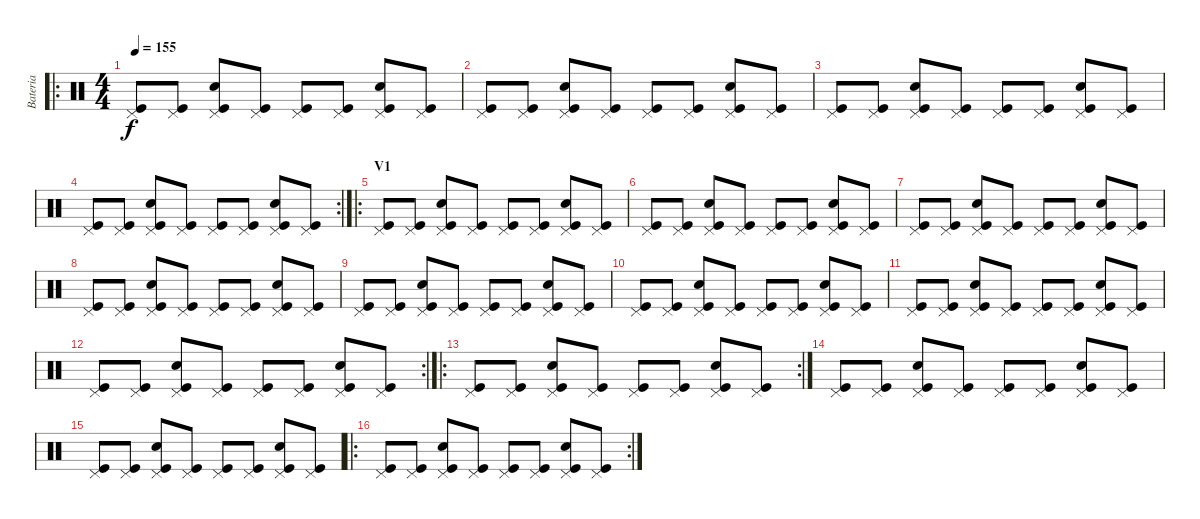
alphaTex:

\track ("Bateria" "Bateria") {instrument percussion}
\staff {score}
\articulation defaults
\ro
\ts (4 4)
\tempo 155
\clef neutral
\ks c
("Pedal Hi-Hat (hit)" "Kick (hit)").8{dy f} ("Pedal Hi-Hat (hit)" "Kick (hit)").8 ("Pedal Hi-Hat (hit)" "Electric Snare (hit)" "Kick (hit)").8 ("Pedal Hi-Hat (hit)" "Kick (hit)").8 ("Pedal Hi-Hat (hit)" "Kick (hit)").8 ("Pedal Hi-Hat (hit)" "Kick (hit)").8 ("Pedal Hi-Hat (hit)" "Electric Snare (hit)" "Kick (hit)").8 ("Pedal Hi-Hat (hit)" "Kick (hit)").8 |
("Pedal Hi-Hat (hit)" "Kick (hit)").8 ("Pedal Hi-Hat (hit)" "Kick (hit)").8 ("Pedal Hi-Hat (hit)" "Electric Snare (hit)" "Kick (hit)").8 ("Pedal Hi-Hat (hit)" "Kick (hit)").8 ("Pedal Hi-Hat (hit)" "Kick (hit)").8 ("Pedal Hi-Hat (hit)" "Kick (hit)").8 ("Pedal Hi-Hat (hit)" "Electric Snare (hit)" "Kick (hit)").8 ("Pedal Hi-Hat (hit)" "Kick (hit)").8 |
("Pedal Hi-Hat (hit)" "Kick (hit)").8 ("Pedal Hi-Hat (hit)" "Kick (hit)").8 ("Pedal Hi-Hat (hit)" "Electric Snare (hit)" "Kick (hit)").8 ("Pedal Hi-Hat (hit)" "Kick (hit)").8 ("Pedal Hi-Hat (hit)" "Kick (hit)").8 ("Pedal Hi-Hat (hit)" "Kick (hit)").8 ("Pedal Hi-Hat (hit)" "Electric Snare (hit)" "Kick (hit)").8 ("Pedal Hi-Hat (hit)" "Kick (hit)").8 |
\rc 2
("Pedal Hi-Hat (hit)" "Kick (hit)").8 ("Pedal Hi-Hat (hit)" "Kick (hit)").8 ("Pedal Hi-Hat (hit)" "Electric Snare (hit)" "Kick (hit)").8 ("Pedal Hi-Hat (hit)" "Kick (hit)").8 ("Pedal Hi-Hat (hit)" "Kick (hit)").8 ("Pedal Hi-Hat (hit)" "Kick (hit)").8 ("Pedal Hi-Hat (hit)" "Electric Snare (hit)" "Kick (hit)").8 ("Pedal Hi-Hat (hit)" "Kick (hit)").8 |
\ro
\section ("" "V1")
("Pedal Hi-Hat (hit)" "Kick (hit)").8 ("Pedal Hi-Hat (hit)" "Kick (hit)").8 ("Pedal Hi-Hat (hit)" "Electric Snare (hit)" "Kick (hit)").8 ("Pedal Hi-Hat (hit)" "Kick (hit)").8 ("Pedal Hi-Hat (hit)" "Kick (hit)").8 ("Pedal Hi-Hat (hit)" "Kick (hit)").8 ("Pedal Hi-Hat (hit)" "Electric Snare (hit)" "Kick (hit)").8 ("Pedal Hi-Hat (hit)" "Kick (hit)").8 |
("Pedal Hi-Hat (hit)" "Kick (hit)").8 ("Pedal Hi-Hat (hit)" "Kick (hit)").8 ("Pedal Hi-Hat (hit)" "Electric Snare (hit)" "Kick (hit)").8 ("Pedal Hi-Hat (hit)" "Kick (hit)").8 ("Pedal Hi-Hat (hit)" "Kick (hit)").8 ("Pedal Hi-Hat (hit)" "Kick (hit)").8 ("Pedal Hi-Hat (hit)" "Electric Snare (hit)" "Kick (hit)").8 ("Pedal Hi-Hat (hit)" "Kick (hit)").8 |
("Pedal Hi-Hat (hit)" "Kick (hit)").8 ("Pedal Hi-Hat (hit)" "Kick (hit)").8 ("Pedal Hi-Hat (hit)" "Electric Snare (hit)" "Kick (hit)").8 ("Pedal Hi-Hat (hit)" "Kick (hit)").8 ("Pedal Hi-Hat (hit)" "Kick (hit)").8 ("Pedal Hi-Hat (hit)" "Kick (hit)").8 ("Pedal Hi-Hat (hit)" "Electric Snare (hit)" "Kick (hit)").8 ("Pedal Hi-Hat (hit)" "Kick (hit)").8 |
("Pedal Hi-Hat (hit)" "Kick (hit)").8 ("Pedal Hi-Hat (hit)" "Kick (hit)").8 ("Pedal Hi-Hat (hit)" "Electric Snare (hit)" "Kick (hit)").8 ("Pedal Hi-Hat (hit)" "Kick (hit)").8 ("Pedal Hi-Hat (hit)" "Kick (hit)").8 ("Pedal Hi-Hat (hit)" "Kick (hit)").8 ("Pedal Hi-Hat (hit)" "Electric Snare (hit)" "Kick (hit)").8 ("Pedal Hi-Hat (hit)" "Kick (hit)").8 |
("Pedal Hi-Hat (hit)" "Kick (hit)").8 ("Pedal Hi-Hat (hit)" "Kick (hit)").8 ("Pedal Hi-Hat (hit)" "Electric Snare (hit)" "Kick (hit)").8 ("Pedal Hi-Hat (hit)" "Kick (hit)").8 ("Pedal Hi-Hat (hit)" "Kick (hit)").8 ("Pedal Hi-Hat (hit)" "Kick (hit)").8 ("Pedal Hi-Hat (hit)" "Electric Snare (hit)" "Kick (hit)").8 ("Pedal Hi-Hat (hit)" "Kick (hit)").8 |
("Pedal Hi-Hat (hit)" "Kick (hit)").8 ("Pedal Hi-Hat (hit)" "Kick (hit)").8 ("Pedal Hi-Hat (hit)" "Electric Snare (hit)" "Kick (hit)").8 ("Pedal Hi-Hat (hit)" "Kick (hit)").8 ("Pedal Hi-Hat (hit)" "Kick (hit)").8 ("Pedal Hi-Hat (hit)" "Kick (hit)").8 ("Pedal Hi-Hat (hit)" "Electric Snare (hit)" "Kick (hit)").8 ("Pedal Hi-Hat (hit)" "Kick (hit)").8 |
("Pedal Hi-Hat (hit)" "Kick (hit)").8 ("Pedal Hi-Hat (hit)" "Kick (hit)").8 ("Pedal Hi-Hat (hit)" "Electric Snare (hit)" "Kick (hit)").8 ("Pedal Hi-Hat (hit)" "Kick (hit)").8 ("Pedal Hi-Hat (hit)" "Kick (hit)").8 ("Pedal Hi-Hat (hit)" "Kick (hit)").8 ("Pedal Hi-Hat (hit)" "Electric Snare (hit)" "Kick (hit)").8 ("Pedal Hi-Hat (hit)" "Kick (hit)").8 |
\rc 2
("Pedal Hi-Hat (hit)" "Kick (hit)").8 ("Pedal Hi-Hat (hit)" "Kick (hit)").8 ("Pedal Hi-Hat (hit)" "Electric Snare (hit)" "Kick (hit)").8 ("Pedal Hi-Hat (hit)" "Kick (hit)").8 ("Pedal Hi-Hat (hit)" "Kick (hit)").8 ("Pedal Hi-Hat (hit)" "Kick (hit)").8 ("Pedal Hi-Hat (hit)" "Electric Snare (hit)" "Kick (hit)").8 ("Pedal Hi-Hat (hit)" "Kick (hit)").8 |
\ro
\rc 2
("Pedal Hi-Hat (hit)" "Kick (hit)").8 ("Pedal Hi-Hat (hit)" "Kick (hit)").8 ("Pedal Hi-Hat (hit)" "Electric Snare (hit)" "Kick (hit)").8 ("Pedal Hi-Hat (hit)" "Kick (hit)").8 ("Pedal Hi-Hat (hit)" "Kick (hit)").8 ("Pedal Hi-Hat (hit)" "Kick (hit)").8 ("Pedal Hi-Hat (hit)" "Electric Snare (hit)" "Kick (hit)").8 ("Pedal Hi-Hat (hit)" "Kick (hit)").8 |
("Pedal Hi-Hat (hit)" "Kick (hit)").8 ("Pedal Hi-Hat (hit)" "Kick (hit)").8 ("Pedal Hi-Hat (hit)" "Electric Snare (hit)" "Kick (hit)").8 ("Pedal Hi-Hat (hit)" "Kick (hit)").8 ("Pedal Hi-Hat (hit)" "Kick (hit)").8 ("Pedal Hi-Hat (hit)" "Kick (hit)").8 ("Pedal Hi-Hat (hit)" "Electric Snare (hit)" "Kick (hit)").8 ("Pedal Hi-Hat (hit)" "Kick (hit)").8 |
("Pedal Hi-Hat (hit)" "Kick (hit)").8 ("Pedal Hi-Hat (hit)" "Kick (hit)").8 ("Pedal Hi-Hat (hit)" "Electric Snare (hit)" "Kick (hit)").8 ("Pedal Hi-Hat (hit)" "Kick (hit)").8 ("Pedal Hi-Hat (hit)" "Kick (hit)").8 ("Pedal Hi-Hat (hit)" "Kick (hit)").8 ("Pedal Hi-Hat (hit)" "Electric Snare (hit)" "Kick (hit)").8 ("Pedal Hi-Hat (hit)" "Kick (hit)").8 |
\ro
\rc 2
("Pedal Hi-Hat (hit)" "Kick (hit)").8 ("Pedal Hi-Hat (hit)" "Kick (hit)").8 ("Pedal Hi-Hat (hit)" "Electric Snare (hit)" "Kick (hit)").8 ("Pedal Hi-Hat (hit)" "Kick (hit)").8 ("Pedal Hi-Hat (hit)" "Kick (hit)").8 ("Pedal Hi-Hat (hit)" "Kick (hit)").8 ("Pedal Hi-Hat (hit)" "Electric Snare (hit)" "Kick (hit)").8 ("Pedal Hi-Hat (hit)" "Kick (hit)").8
